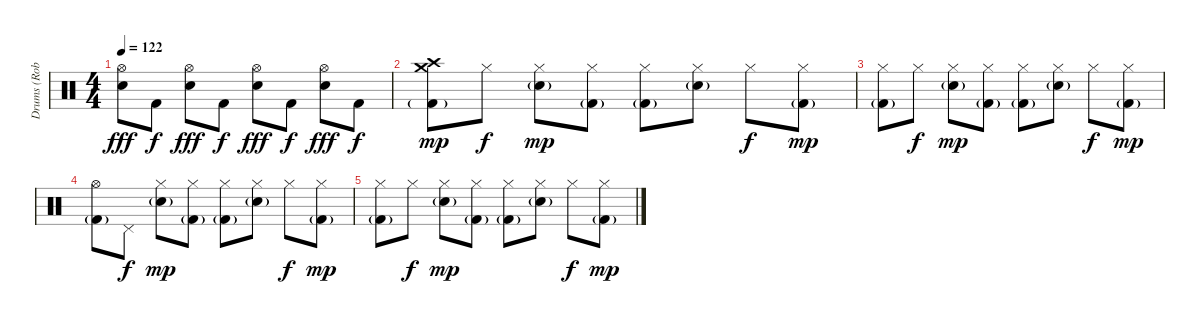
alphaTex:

\track ("Drums (Rob Boudron)" "Drums (Rob") {instrument percussion}
\staff {score}
\articulation defaults
\ts (4 4)
\tempo 122
\clef neutral
\ks c
("Hi-Hat (open)" "Electric Snare (hit)").8{dy fff} "Kick (hit) 2".8{dy f} ("Hi-Hat (open)" "Electric Snare (hit)").8{dy fff} "Kick (hit) 2".8{dy f} ("Hi-Hat (open)" "Electric Snare (hit)").8{dy fff} "Kick (hit) 2".8{dy f} ("Hi-Hat (open)" "Electric Snare (hit)").8{dy fff} "Kick (hit) 2".8{dy f} |
("Crash medium (hit)" "Crash high (hit)" "Kick (hit) 2"{g}).8{dy mp} "Hi-Hat (closed)".8{dy f} ("Hi-Hat (closed)" "Electric Snare (hit)"{g}).8{dy mp} ("Hi-Hat (closed)" "Kick (hit) 2"{g}).8 ("Hi-Hat (closed)" "Kick (hit) 2"{g}).8 ("Hi-Hat (closed)" "Electric Snare (hit)"{g}).8 "Hi-Hat (closed)".8{dy f} ("Hi-Hat (closed)" "Kick (hit) 2"{g}).8{dy mp} |
("Hi-Hat (closed)" "Kick (hit) 2"{g}).8 "Hi-Hat (closed)".8{dy f} ("Hi-Hat (closed)" "Electric Snare (hit)"{g}).8{dy mp} ("Hi-Hat (closed)" "Kick (hit) 2"{g}).8 ("Hi-Hat (closed)" "Kick (hit) 2"{g}).8 ("Hi-Hat (closed)" "Electric Snare (hit)"{g}).8 "Hi-Hat (closed)".8{dy f} ("Hi-Hat (closed)" "Kick (hit) 2"{g}).8{dy mp} |
("Hi-Hat (open)" "Kick (hit) 2"{g}).8 "Pedal Hi-Hat (hit)".8{dy f} ("Hi-Hat (closed)" "Electric Snare (hit)"{g}).8{dy mp} ("Hi-Hat (closed)" "Kick (hit) 2"{g}).8 ("Hi-Hat (closed)" "Kick (hit) 2"{g}).8 ("Hi-Hat (closed)" "Electric Snare (hit)"{g}).8 "Hi-Hat (closed)".8{dy f} ("Hi-Hat (closed)" "Kick (hit) 2"{g}).8{dy mp} |
("Hi-Hat (closed)" "Kick (hit) 2"{g}).8 "Hi-Hat (closed)".8{dy f} ("Hi-Hat (closed)" "Electric Snare (hit)"{g}).8{dy mp} ("Hi-Hat (closed)" "Kick (hit) 2"{g}).8 ("Hi-Hat (closed)" "Kick (hit) 2"{g}).8 ("Hi-Hat (closed)" "Electric Snare (hit)"{g}).8 "Hi-Hat (closed)".8{dy f} ("Hi-Hat (closed)" "Kick (hit) 2"{g}).8{dy mp}
